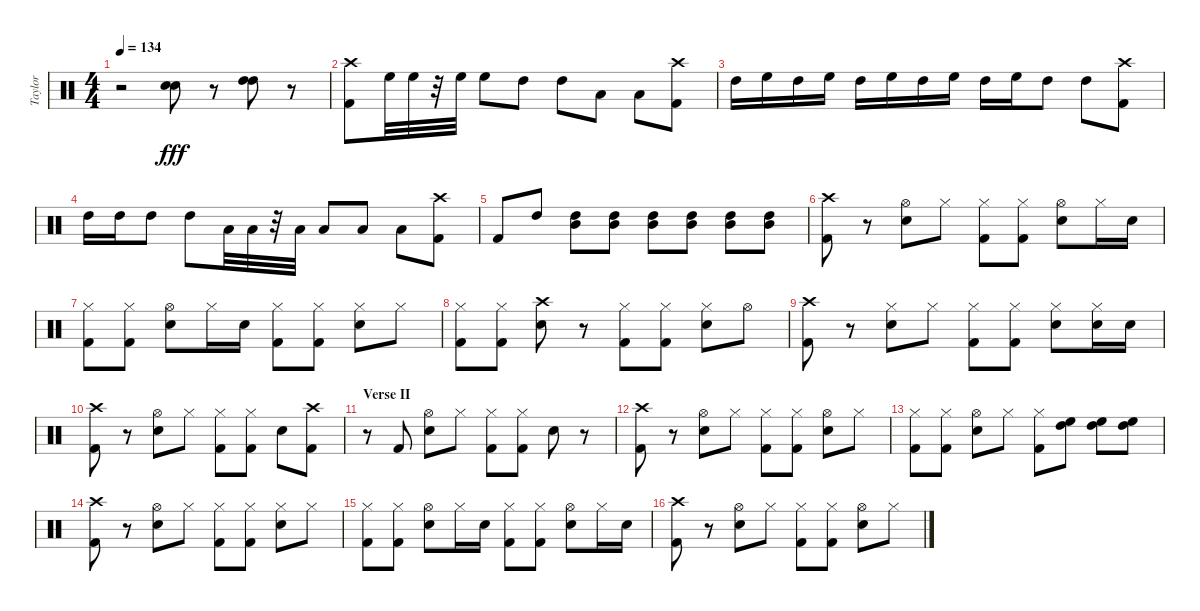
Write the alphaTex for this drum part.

\track ("Taylor" "Taylor") {instrument percussion}
\staff {score}
\articulation defaults
\ts (4 4)
\tempo 134
\clef neutral
\ks c
r.2{dy fff} ("Snare (hit) 2" "Snare (hit) 2").8 r.8 ("High Tom (hit)" "High Tom (hit)").8 r.8 |
("Crash high (hit)" "Kick (hit) 2").8 "High Floor Tom (hit)".32 "High Floor Tom (hit)".32 r.32 "High Floor Tom (hit)".32 "High Floor Tom (hit)".8 "High Tom (hit)".8 "High Tom (hit)".8 "Low Tom (hit)".8 "Low Tom (hit)".8 ("Kick (hit) 2" "Crash high (hit)").8 |
"High Tom (hit)".16 "High Floor Tom (hit)".16 "High Tom (hit)".16 "High Floor Tom (hit)".16 "High Tom (hit)".16 "High Floor Tom (hit)".16 "High Tom (hit)".16 "High Floor Tom (hit)".16 "High Tom (hit)".16 "High Floor Tom (hit)".16 "High Tom (hit)".8 "High Tom (hit)".8 ("Kick (hit) 2" "Crash high (hit)").8 |
"High Tom (hit)".16 "High Tom (hit)".16 "High Tom (hit)".8 "High Tom (hit)".8 "Low Tom (hit)".32 "Low Tom (hit)".32 r.32 "Low Tom (hit)".32 "Low Tom (hit)".8 "Low Tom (hit)".8 "Low Tom (hit)".8 ("Kick (hit) 2" "Crash high (hit)").8 |
"Kick (hit) 2".8 "High Tom (hit)".8 ("High Tom (hit)" "Mid Tom (hit)").8 ("High Tom (hit)" "Mid Tom (hit)").8 ("High Tom (hit)" "Mid Tom (hit)").8 ("High Tom (hit)" "Mid Tom (hit)").8 ("High Tom (hit)" "Mid Tom (hit)").8 ("High Tom (hit)" "Mid Tom (hit)").8 |
("Kick (hit) 2" "Crash high (hit)").8 r.8 ("Snare (hit) 2" "Hi-Hat (open)").8 "Hi-Hat (closed)".8 ("Kick (hit) 2" "Hi-Hat (closed)").8 ("Kick (hit) 2" "Hi-Hat (closed)").8 ("Snare (hit) 2" "Hi-Hat (open)").8 "Hi-Hat (closed)".16 "Snare (hit) 2".16 |
("Kick (hit) 2" "Hi-Hat (closed)").8 ("Kick (hit) 2" "Hi-Hat (closed)").8 ("Snare (hit) 2" "Hi-Hat (open)").8 "Hi-Hat (closed)".16 "Snare (hit) 2".16 ("Kick (hit) 2" "Hi-Hat (closed)").8 ("Kick (hit) 2" "Hi-Hat (closed)").8 ("Snare (hit) 2" "Hi-Hat (closed)").8 "Hi-Hat (closed)".8 |
("Kick (hit) 2" "Hi-Hat (closed)").8 ("Kick (hit) 2" "Hi-Hat (closed)").8 ("Snare (hit) 2" "Crash high (hit)").8 r.8 ("Kick (hit) 2" "Hi-Hat (closed)").8 ("Kick (hit) 2" "Hi-Hat (closed)").8 ("Snare (hit) 2" "Hi-Hat (closed)").8 "Hi-Hat (open)".8 |
("Kick (hit) 2" "Crash high (hit)").8 r.8 ("Snare (hit) 2" "Hi-Hat (closed)").8 "Hi-Hat (closed)".8 ("Kick (hit) 2" "Hi-Hat (closed)").8 ("Kick (hit) 2" "Hi-Hat (closed)").8 ("Snare (hit) 2" "Hi-Hat (closed)").8 ("Snare (hit) 2" "Hi-Hat (closed)").16 "Snare (hit) 2".16 |
("Kick (hit) 2" "Crash high (hit)").8 r.8 ("Snare (hit) 2" "Hi-Hat (open)").8 "Hi-Hat (closed)".8 ("Kick (hit) 2" "Hi-Hat (closed)").8 ("Kick (hit) 2" "Hi-Hat (closed)").8 "Snare (hit) 2".8 ("Kick (hit) 2" "Crash high (hit)").8 |
\section ("" "Verse II")
r.8 "Kick (hit) 2".8 ("Snare (hit) 2" "Hi-Hat (open)").8 "Hi-Hat (closed)".8 ("Kick (hit) 2" "Hi-Hat (closed)").8 ("Kick (hit) 2" "Hi-Hat (closed)").8 "Snare (hit) 2".8 r.8 |
("Kick (hit) 2" "Crash high (hit)").8 r.8 ("Snare (hit) 2" "Hi-Hat (open)").8 "Hi-Hat (closed)".8 ("Kick (hit) 2" "Hi-Hat (closed)").8 ("Kick (hit) 2" "Hi-Hat (closed)").8 ("Snare (hit) 2" "Hi-Hat (open)").8 "Hi-Hat (closed)".8 |
("Kick (hit) 2" "Hi-Hat (closed)").8 ("Kick (hit) 2" "Hi-Hat (closed)").8 ("Snare (hit) 2" "Hi-Hat (open)").8 "Hi-Hat (closed)".8 ("Kick (hit) 2" "Hi-Hat (closed)").8 ("High Tom (hit)" "High Floor Tom (hit)").8 ("High Tom (hit)" "High Floor Tom (hit)").8 ("High Tom (hit)" "High Floor Tom (hit)").8 |
("Crash high (hit)" "Kick (hit) 2").8 r.8 ("Snare (hit) 2" "Hi-Hat (open)").8 "Hi-Hat (closed)".8 ("Kick (hit) 2" "Hi-Hat (closed)").8 ("Kick (hit) 2" "Hi-Hat (closed)").8 ("Snare (hit) 2" "Hi-Hat (closed)").8 "Hi-Hat (closed)".8 |
("Kick (hit) 2" "Hi-Hat (closed)").8 ("Kick (hit) 2" "Hi-Hat (closed)").8 ("Snare (hit) 2" "Hi-Hat (open)").8 "Hi-Hat (closed)".16 "Snare (hit) 2".16 ("Kick (hit) 2" "Hi-Hat (closed)").8 ("Kick (hit) 2" "Hi-Hat (closed)").8 ("Snare (hit) 2" "Hi-Hat (open)").8 "Hi-Hat (closed)".16 "Snare (hit) 2".16 |
("Kick (hit) 2" "Crash high (hit)").8 r.8 ("Snare (hit) 2" "Hi-Hat (open)").8 "Hi-Hat (closed)".8 ("Kick (hit) 2" "Hi-Hat (closed)").8 ("Kick (hit) 2" "Hi-Hat (closed)").8 ("Snare (hit) 2" "Hi-Hat (open)").8 "Hi-Hat (closed)".8
